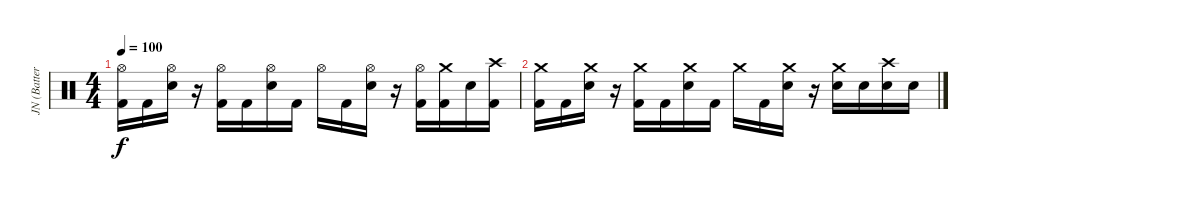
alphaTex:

\track ("JN (Batterie)" "JN (Batter") {instrument percussion}
\staff {score}
\articulation defaults
\ts (4 4)
\tempo 100
\clef neutral
\ks c
("Hi-Hat (open)" "Kick (hit) 2").16{dy f} "Kick (hit) 2".16 ("Hi-Hat (open)" "Electric Snare (hit)").16 r.16 ("Hi-Hat (open)" "Kick (hit) 2").16 "Kick (hit) 2".16 ("Hi-Hat (open)" "Electric Snare (hit)").16 "Kick (hit) 2".16 "Hi-Hat (open)".16 "Kick (hit) 2".16 ("Hi-Hat (open)" "Electric Snare (hit)").16 r.16 ("Hi-Hat (open)" "Kick (hit) 2").16 ("Crash medium (hit)" "Kick (hit) 2").16 "Electric Snare (hit)".16 ("Crash high (hit)" "Kick (hit) 2").16 |
("Crash medium (hit)" "Kick (hit) 2").16 "Kick (hit) 2".16 ("Crash medium (hit)" "Electric Snare (hit)").16 r.16 ("Crash medium (hit)" "Kick (hit) 2").16 "Kick (hit) 2".16 ("Crash medium (hit)" "Electric Snare (hit)").16 "Kick (hit) 2".16 "Crash medium (hit)".16 "Kick (hit) 2".16 ("Crash medium (hit)" "Electric Snare (hit)").16 r.16 ("Crash medium (hit)" "Electric Snare (hit)").16 "Electric Snare (hit)".16 ("Crash high (hit)" "Electric Snare (hit)").16 "Electric Snare (hit)".16
